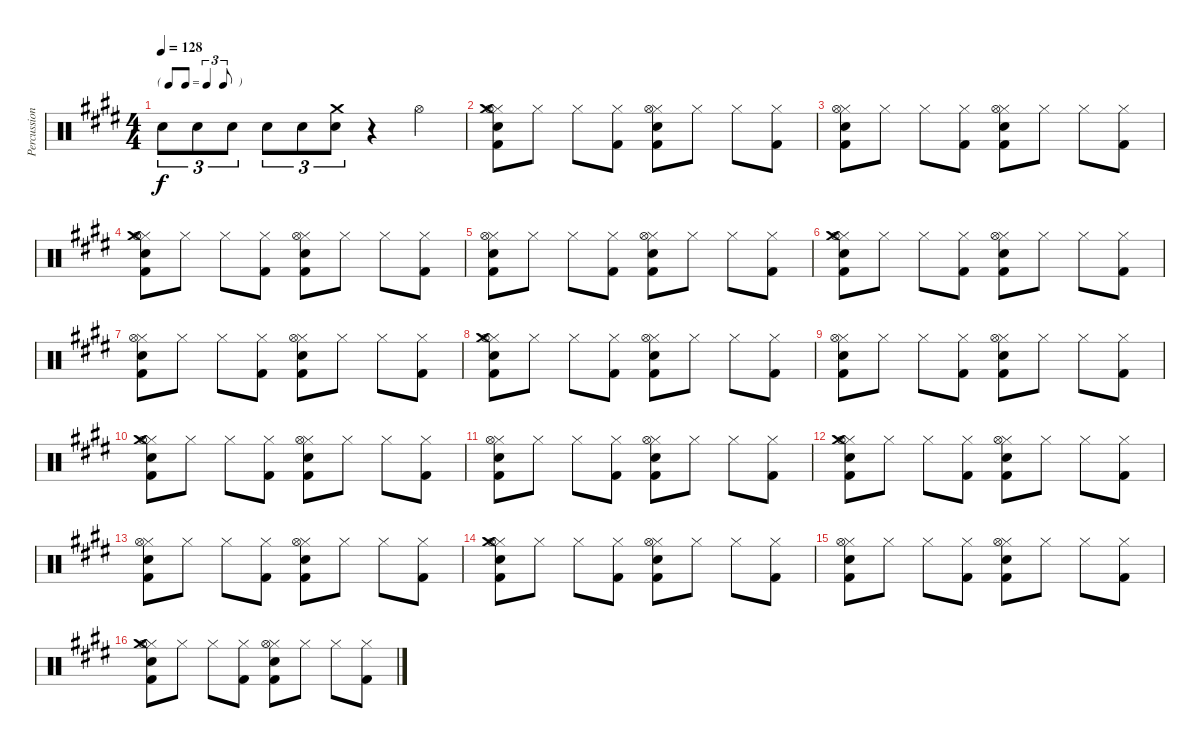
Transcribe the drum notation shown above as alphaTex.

\track ("Percussion" "Percussion") {instrument percussion}
\staff {score}
\articulation defaults
\ts (4 4)
\tf triplet8th
\tempo 128
\clef neutral
\ks e "Electric Snare (hit)".8{tu (3 2) dy f} "Electric Snare (hit)".8{tu (3 2)} "Electric Snare (hit)".8{tu (3 2)} "Electric Snare (hit)".8{tu (3 2)} "Electric Snare (hit)".8{tu (3 2)}
("Crash medium (hit)" "Electric Snare (hit)").8{tu (3 2)} r.4 "Hi-Hat (open)".4 |
("Kick (hit) 2" "Electric Snare (hit)" "Hi-Hat (closed)" "Crash medium (hit)" "Hi-Hat (open)").8 "Hi-Hat (closed)".8 "Hi-Hat (closed)".8 ("Kick (hit) 2" "Hi-Hat (closed)").8 ("Kick (hit) 2" "Electric Snare (hit)" "Hi-Hat (closed)" "Hi-Hat (open)").8 "Hi-Hat (closed)".8 "Hi-Hat (closed)".8 ("Kick (hit) 2" "Hi-Hat (closed)").8 |
("Kick (hit) 2" "Electric Snare (hit)" "Hi-Hat (closed)" "Hi-Hat (open)").8 "Hi-Hat (closed)".8 "Hi-Hat (closed)".8 ("Kick (hit) 2" "Hi-Hat (closed)").8 ("Kick (hit) 2" "Electric Snare (hit)" "Hi-Hat (closed)" "Hi-Hat (open)").8 "Hi-Hat (closed)".8 "Hi-Hat (closed)".8 ("Kick (hit) 2" "Hi-Hat (closed)").8 |
("Kick (hit) 2" "Electric Snare (hit)" "Hi-Hat (closed)" "Crash medium (hit)" "Hi-Hat (open)").8 "Hi-Hat (closed)".8 "Hi-Hat (closed)".8 ("Kick (hit) 2" "Hi-Hat (closed)").8 ("Kick (hit) 2" "Electric Snare (hit)" "Hi-Hat (closed)" "Hi-Hat (open)").8 "Hi-Hat (closed)".8 "Hi-Hat (closed)".8 ("Kick (hit) 2" "Hi-Hat (closed)").8 |
("Kick (hit) 2" "Electric Snare (hit)" "Hi-Hat (closed)" "Hi-Hat (open)").8 "Hi-Hat (closed)".8 "Hi-Hat (closed)".8 ("Kick (hit) 2" "Hi-Hat (closed)").8 ("Kick (hit) 2" "Electric Snare (hit)" "Hi-Hat (closed)" "Hi-Hat (open)").8 "Hi-Hat (closed)".8 "Hi-Hat (closed)".8 ("Kick (hit) 2" "Hi-Hat (closed)").8 |
("Kick (hit) 2" "Electric Snare (hit)" "Hi-Hat (closed)" "Crash medium (hit)" "Hi-Hat (open)").8 "Hi-Hat (closed)".8 "Hi-Hat (closed)".8 ("Kick (hit) 2" "Hi-Hat (closed)").8 ("Kick (hit) 2" "Electric Snare (hit)" "Hi-Hat (closed)" "Hi-Hat (open)").8 "Hi-Hat (closed)".8 "Hi-Hat (closed)".8 ("Kick (hit) 2" "Hi-Hat (closed)").8 |
("Kick (hit) 2" "Electric Snare (hit)" "Hi-Hat (closed)" "Hi-Hat (open)").8 "Hi-Hat (closed)".8 "Hi-Hat (closed)".8 ("Kick (hit) 2" "Hi-Hat (closed)").8 ("Kick (hit) 2" "Electric Snare (hit)" "Hi-Hat (closed)" "Hi-Hat (open)").8 "Hi-Hat (closed)".8 "Hi-Hat (closed)".8 ("Kick (hit) 2" "Hi-Hat (closed)").8 |
("Kick (hit) 2" "Electric Snare (hit)" "Hi-Hat (closed)" "Crash medium (hit)" "Hi-Hat (open)").8 "Hi-Hat (closed)".8 "Hi-Hat (closed)".8 ("Kick (hit) 2" "Hi-Hat (closed)").8 ("Kick (hit) 2" "Electric Snare (hit)" "Hi-Hat (closed)" "Hi-Hat (open)").8 "Hi-Hat (closed)".8 "Hi-Hat (closed)".8 ("Kick (hit) 2" "Hi-Hat (closed)").8 |
("Kick (hit) 2" "Electric Snare (hit)" "Hi-Hat (closed)" "Hi-Hat (open)").8 "Hi-Hat (closed)".8 "Hi-Hat (closed)".8 ("Kick (hit) 2" "Hi-Hat (closed)").8 ("Kick (hit) 2" "Electric Snare (hit)" "Hi-Hat (closed)" "Hi-Hat (open)").8 "Hi-Hat (closed)".8 "Hi-Hat (closed)".8 ("Kick (hit) 2" "Hi-Hat (closed)").8 |
("Kick (hit) 2" "Electric Snare (hit)" "Hi-Hat (closed)" "Crash medium (hit)" "Hi-Hat (open)").8 "Hi-Hat (closed)".8 "Hi-Hat (closed)".8 ("Kick (hit) 2" "Hi-Hat (closed)").8 ("Kick (hit) 2" "Electric Snare (hit)" "Hi-Hat (closed)" "Hi-Hat (open)").8 "Hi-Hat (closed)".8 "Hi-Hat (closed)".8 ("Kick (hit) 2" "Hi-Hat (closed)").8 |
("Kick (hit) 2" "Electric Snare (hit)" "Hi-Hat (closed)" "Hi-Hat (open)").8 "Hi-Hat (closed)".8 "Hi-Hat (closed)".8 ("Kick (hit) 2" "Hi-Hat (closed)").8 ("Kick (hit) 2" "Electric Snare (hit)" "Hi-Hat (closed)" "Hi-Hat (open)").8 "Hi-Hat (closed)".8 "Hi-Hat (closed)".8 ("Kick (hit) 2" "Hi-Hat (closed)").8 |
("Kick (hit) 2" "Electric Snare (hit)" "Hi-Hat (closed)" "Crash medium (hit)" "Hi-Hat (open)").8 "Hi-Hat (closed)".8 "Hi-Hat (closed)".8 ("Kick (hit) 2" "Hi-Hat (closed)").8 ("Kick (hit) 2" "Electric Snare (hit)" "Hi-Hat (closed)" "Hi-Hat (open)").8 "Hi-Hat (closed)".8 "Hi-Hat (closed)".8 ("Kick (hit) 2" "Hi-Hat (closed)").8 |
("Kick (hit) 2" "Electric Snare (hit)" "Hi-Hat (closed)" "Hi-Hat (open)").8 "Hi-Hat (closed)".8 "Hi-Hat (closed)".8 ("Kick (hit) 2" "Hi-Hat (closed)").8 ("Kick (hit) 2" "Electric Snare (hit)" "Hi-Hat (closed)" "Hi-Hat (open)").8 "Hi-Hat (closed)".8 "Hi-Hat (closed)".8 ("Kick (hit) 2" "Hi-Hat (closed)").8 |
("Kick (hit) 2" "Electric Snare (hit)" "Hi-Hat (closed)" "Crash medium (hit)" "Hi-Hat (open)").8 "Hi-Hat (closed)".8 "Hi-Hat (closed)".8 ("Kick (hit) 2" "Hi-Hat (closed)").8 ("Kick (hit) 2" "Electric Snare (hit)" "Hi-Hat (closed)" "Hi-Hat (open)").8 "Hi-Hat (closed)".8 "Hi-Hat (closed)".8 ("Kick (hit) 2" "Hi-Hat (closed)").8 |
("Kick (hit) 2" "Electric Snare (hit)" "Hi-Hat (closed)" "Hi-Hat (open)").8 "Hi-Hat (closed)".8 "Hi-Hat (closed)".8 ("Kick (hit) 2" "Hi-Hat (closed)").8 ("Kick (hit) 2" "Electric Snare (hit)" "Hi-Hat (closed)" "Hi-Hat (open)").8 "Hi-Hat (closed)".8 "Hi-Hat (closed)".8 ("Kick (hit) 2" "Hi-Hat (closed)").8 |
("Kick (hit) 2" "Electric Snare (hit)" "Hi-Hat (closed)" "Crash medium (hit)" "Hi-Hat (open)").8 "Hi-Hat (closed)".8 "Hi-Hat (closed)".8 ("Kick (hit) 2" "Hi-Hat (closed)").8 ("Kick (hit) 2" "Electric Snare (hit)" "Hi-Hat (closed)" "Hi-Hat (open)").8 "Hi-Hat (closed)".8 "Hi-Hat (closed)".8 ("Kick (hit) 2" "Hi-Hat (closed)").8
